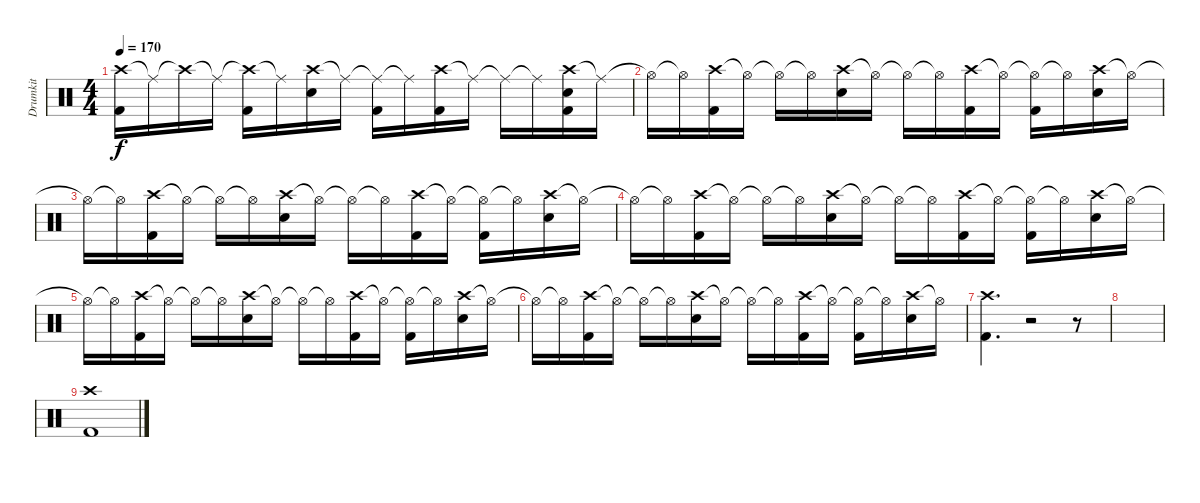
\track ("Drumkit" "Drumkit") {instrument percussion}
\staff {score}
\articulation defaults
\ts (4 4)
\tempo 170
\clef neutral
\ks c
("Crash high (hit)" "Kick (hit) 2").16{dy f} "Ride (middle)"{t}.16 "Crash high (hit)"{t}.16 "Ride (middle)"{t}.16 ("Crash high (hit)"{t} "Kick (hit) 2").16 "Ride (middle)"{t}.16 ("Crash high (hit)" "Snare (hit) 2").16 "Ride (middle)"{t}.16 ("Ride (middle)"{t} "Kick (hit) 2").16 "Ride (middle)"{t}.16 ("Crash high (hit)" "Kick (hit) 2").16 "Ride (middle)"{t}.16 "Ride (middle)"{t}.16 "Ride (middle)"{t}.16 ("Crash high (hit)" "Snare (hit) 2" "Kick (hit) 2").16 "Ride (middle)"{t}.16 |
"Hi-Hat (open)"{t}.16 "Hi-Hat (open)"{t}.16 ("Crash high (hit)" "Kick (hit) 2").16 "Hi-Hat (open)"{t}.16 "Hi-Hat (open)"{t}.16 "Hi-Hat (open)"{t}.16 ("Crash high (hit)" "Snare (hit) 2").16 "Hi-Hat (open)"{t}.16 "Hi-Hat (open)"{t}.16 "Hi-Hat (open)"{t}.16 ("Crash high (hit)" "Kick (hit) 2").16 "Hi-Hat (open)"{t}.16 ("Hi-Hat (open)"{t} "Kick (hit) 2").16 "Hi-Hat (open)"{t}.16 ("Crash high (hit)" "Snare (hit) 2").16 "Hi-Hat (open)"{t}.16 |
"Hi-Hat (open)"{t}.16 "Hi-Hat (open)"{t}.16 ("Crash high (hit)" "Kick (hit) 2").16 "Hi-Hat (open)"{t}.16 "Hi-Hat (open)"{t}.16 "Hi-Hat (open)"{t}.16 ("Crash high (hit)" "Snare (hit) 2").16 "Hi-Hat (open)"{t}.16 "Hi-Hat (open)"{t}.16 "Hi-Hat (open)"{t}.16 ("Crash high (hit)" "Kick (hit) 2").16 "Hi-Hat (open)"{t}.16 ("Hi-Hat (open)"{t} "Kick (hit) 2").16 "Hi-Hat (open)"{t}.16 ("Crash high (hit)" "Snare (hit) 2").16 "Hi-Hat (open)"{t}.16 |
"Hi-Hat (open)"{t}.16 "Hi-Hat (open)"{t}.16 ("Crash high (hit)" "Kick (hit) 2").16 "Hi-Hat (open)"{t}.16 "Hi-Hat (open)"{t}.16 "Hi-Hat (open)"{t}.16 ("Crash high (hit)" "Snare (hit) 2").16 "Hi-Hat (open)"{t}.16 "Hi-Hat (open)"{t}.16 "Hi-Hat (open)"{t}.16 ("Crash high (hit)" "Kick (hit) 2").16 "Hi-Hat (open)"{t}.16 ("Hi-Hat (open)"{t} "Kick (hit) 2").16 "Hi-Hat (open)"{t}.16 ("Crash high (hit)" "Snare (hit) 2").16 "Hi-Hat (open)"{t}.16 |
"Hi-Hat (open)"{t}.16 "Hi-Hat (open)"{t}.16 ("Crash high (hit)" "Kick (hit) 2").16 "Hi-Hat (open)"{t}.16 "Hi-Hat (open)"{t}.16 "Hi-Hat (open)"{t}.16 ("Crash high (hit)" "Snare (hit) 2").16 "Hi-Hat (open)"{t}.16 "Hi-Hat (open)"{t}.16 "Hi-Hat (open)"{t}.16 ("Crash high (hit)" "Kick (hit) 2").16 "Hi-Hat (open)"{t}.16 ("Hi-Hat (open)"{t} "Kick (hit) 2").16 "Hi-Hat (open)"{t}.16 ("Crash high (hit)" "Snare (hit) 2").16 "Hi-Hat (open)"{t}.16 |
"Hi-Hat (open)"{t}.16 "Hi-Hat (open)"{t}.16 ("Crash high (hit)" "Kick (hit) 2").16 "Hi-Hat (open)"{t}.16 "Hi-Hat (open)"{t}.16 "Hi-Hat (open)"{t}.16 ("Crash high (hit)" "Snare (hit) 2").16 "Hi-Hat (open)"{t}.16 "Hi-Hat (open)"{t}.16 "Hi-Hat (open)"{t}.16 ("Crash high (hit)" "Kick (hit) 2").16 "Hi-Hat (open)"{t}.16 ("Hi-Hat (open)"{t} "Kick (hit) 2").16 "Hi-Hat (open)"{t}.16 ("Crash high (hit)" "Snare (hit) 2").16 "Hi-Hat (open)"{t}.16 |
("Crash high (hit)" "Kick (hit) 2").4{d} r.2 r.8 |
|
("Crash high (hit)" "Kick (hit) 2").1
